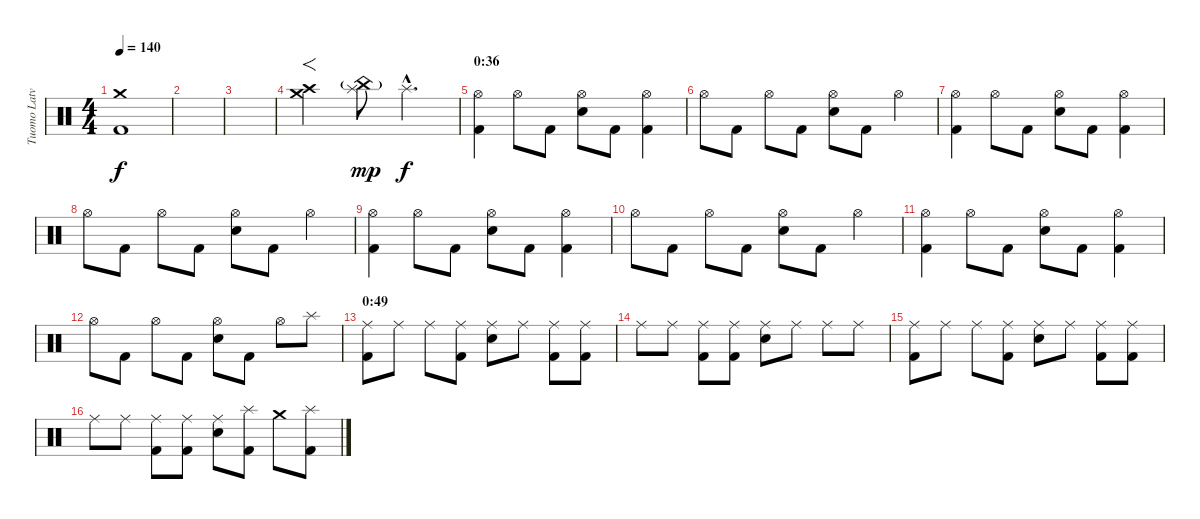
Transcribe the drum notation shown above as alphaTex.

\track ("Tuomo Latvala" "Tuomo Latv") {instrument percussion}
\staff {score}
\articulation defaults
\ts (4 4)
\tempo 140
\clef neutral
\ks c
("Crash medium (hit)" "Kick (hit) 2").1{dy f} |
|
|
("Crash medium (hit)" "Crash high (hit)").2{f} ("Splash (hit)" "China (hit)"{g}).8{dy mp} "Splash (hit)"{hac}.4{d dy f} |
\section ("" "0:36")
("Hi-Hat (open)" "Kick (hit) 2").4 "Hi-Hat (open)".8 "Kick (hit) 2".8 ("Hi-Hat (open)" "Electric Snare (hit)").8 "Kick (hit) 2".8 ("Hi-Hat (open)" "Kick (hit) 2").4 |
"Hi-Hat (open)".8 "Kick (hit) 2".8 "Hi-Hat (open)".8 "Kick (hit) 2".8 ("Hi-Hat (open)" "Electric Snare (hit)").8 "Kick (hit) 2".8 "Hi-Hat (open)".4 |
("Hi-Hat (open)" "Kick (hit) 2").4 "Hi-Hat (open)".8 "Kick (hit) 2".8 ("Hi-Hat (open)" "Electric Snare (hit)").8 "Kick (hit) 2".8 ("Hi-Hat (open)" "Kick (hit) 2").4 |
"Hi-Hat (open)".8 "Kick (hit) 2".8 "Hi-Hat (open)".8 "Kick (hit) 2".8 ("Hi-Hat (open)" "Electric Snare (hit)").8 "Kick (hit) 2".8 "Hi-Hat (open)".4 |
("Hi-Hat (open)" "Kick (hit) 2").4 "Hi-Hat (open)".8 "Kick (hit) 2".8 ("Hi-Hat (open)" "Electric Snare (hit)").8 "Kick (hit) 2".8 ("Hi-Hat (open)" "Kick (hit) 2").4 |
"Hi-Hat (open)".8 "Kick (hit) 2".8 "Hi-Hat (open)".8 "Kick (hit) 2".8 ("Hi-Hat (open)" "Electric Snare (hit)").8 "Kick (hit) 2".8 "Hi-Hat (open)".4 |
("Hi-Hat (open)" "Kick (hit) 2").4 "Hi-Hat (open)".8 "Kick (hit) 2".8 ("Hi-Hat (open)" "Electric Snare (hit)").8 "Kick (hit) 2".8 ("Hi-Hat (open)" "Kick (hit) 2").4 |
"Hi-Hat (open)".8 "Kick (hit) 2".8 "Hi-Hat (open)".8 "Kick (hit) 2".8 ("Hi-Hat (open)" "Electric Snare (hit)").8 "Kick (hit) 2".8 "Hi-Hat (open)".8 "Splash (hit)".8 |
\section ("" "0:49")
("Ride (middle)" "Kick (hit) 2").8 "Ride (middle)".8 "Ride (middle)".8 ("Ride (middle)" "Kick (hit) 2").8 ("Ride (middle)" "Electric Snare (hit)").8 "Ride (middle)".8 ("Ride (middle)" "Kick (hit) 2").8 ("Ride (middle)" "Kick (hit) 2").8 |
"Ride (middle)".8 "Ride (middle)".8 ("Ride (middle)" "Kick (hit) 2").8 ("Ride (middle)" "Kick (hit) 2").8 ("Ride (middle)" "Electric Snare (hit)").8 "Ride (middle)".8 "Ride (middle)".8 "Ride (middle)".8 |
("Ride (middle)" "Kick (hit) 2").8 "Ride (middle)".8 "Ride (middle)".8 ("Ride (middle)" "Kick (hit) 2").8 ("Ride (middle)" "Electric Snare (hit)").8 "Ride (middle)".8 ("Ride (middle)" "Kick (hit) 2").8 ("Ride (middle)" "Kick (hit) 2").8 |
"Ride (middle)".8 "Ride (middle)".8 ("Ride (middle)" "Kick (hit) 2").8 ("Ride (middle)" "Kick (hit) 2").8 ("Ride (middle)" "Electric Snare (hit)").8 ("Splash (hit)" "Kick (hit) 2").8 "Crash medium (hit)".8 ("Splash (hit)" "Kick (hit) 2").8
